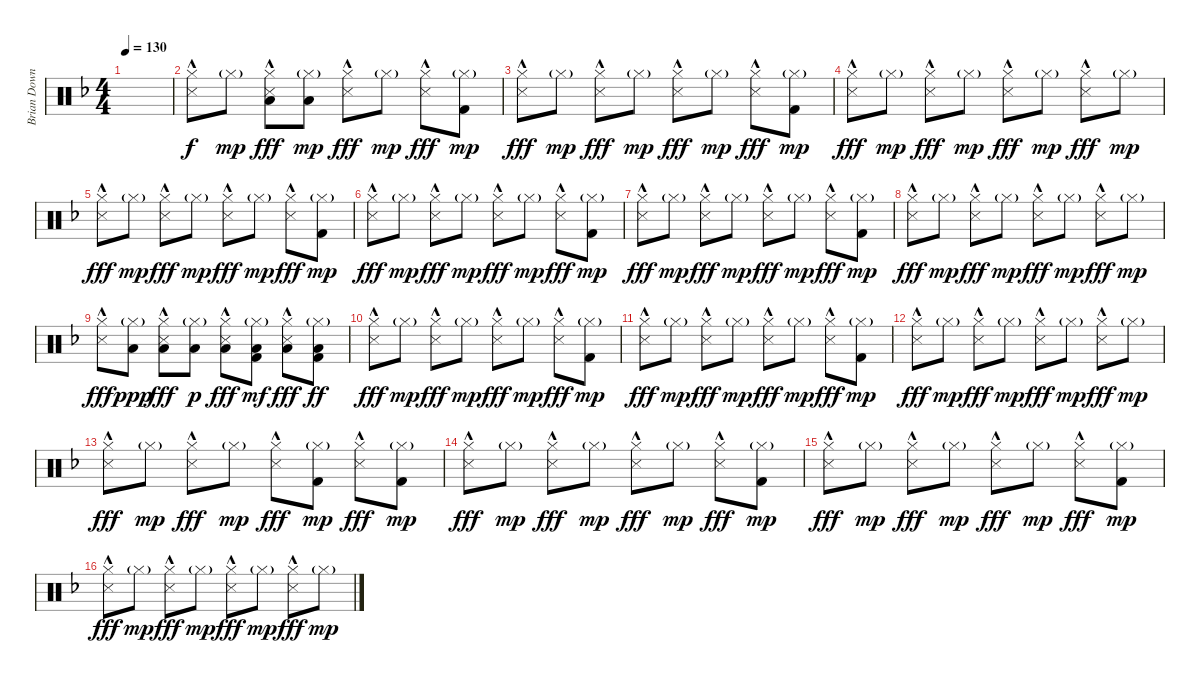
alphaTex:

\track ("Brian Downey" "Brian Down") {instrument percussion}
\staff {score}
\articulation defaults
\ts (4 4)
\tempo 130
\clef neutral
\ks dminor
|
("Hi-Hat (closed)" "Metronome (hit)"{hac}).8 "Hi-Hat (closed)"{g}.8{dy mp} ("Hi-Hat (closed)" "Low Tom (hit)" "Metronome (hit)"{hac}).8{dy fff} ("Hi-Hat (closed)"{g} "Low Tom (hit)").8{dy mp} ("Hi-Hat (closed)" "Metronome (hit)"{hac}).8{dy fff} "Hi-Hat (closed)"{g}.8{dy mp} ("Hi-Hat (closed)" "Metronome (hit)"{hac}).8{dy fff} ("Hi-Hat (closed)"{g} "Kick (hit) 2").8{dy mp} |
("Hi-Hat (closed)" "Metronome (hit)"{hac}).8{dy fff} "Hi-Hat (closed)"{g}.8{dy mp} ("Hi-Hat (closed)" "Metronome (hit)"{hac}).8{dy fff} "Hi-Hat (closed)"{g}.8{dy mp} ("Hi-Hat (closed)" "Metronome (hit)"{hac}).8{dy fff} "Hi-Hat (closed)"{g}.8{dy mp} ("Hi-Hat (closed)" "Metronome (hit)"{hac}).8{dy fff} ("Hi-Hat (closed)"{g} "Kick (hit) 2").8{dy mp} |
("Hi-Hat (closed)" "Metronome (hit)"{hac}).8{dy fff} "Hi-Hat (closed)"{g}.8{dy mp} ("Hi-Hat (closed)" "Metronome (hit)"{hac}).8{dy fff} "Hi-Hat (closed)"{g}.8{dy mp} ("Hi-Hat (closed)" "Metronome (hit)"{hac}).8{dy fff} "Hi-Hat (closed)"{g}.8{dy mp} ("Hi-Hat (closed)" "Metronome (hit)"{hac}).8{dy fff} "Hi-Hat (closed)"{g}.8{dy mp} |
("Hi-Hat (closed)" "Metronome (hit)"{hac}).8{dy fff} "Hi-Hat (closed)"{g}.8{dy mp} ("Hi-Hat (closed)" "Metronome (hit)"{hac}).8{dy fff} "Hi-Hat (closed)"{g}.8{dy mp} ("Hi-Hat (closed)" "Metronome (hit)"{hac}).8{dy fff} "Hi-Hat (closed)"{g}.8{dy mp} ("Hi-Hat (closed)" "Metronome (hit)"{hac}).8{dy fff} ("Hi-Hat (closed)"{g} "Kick (hit) 2").8{dy mp} |
("Hi-Hat (closed)" "Metronome (hit)"{hac}).8{dy fff} "Hi-Hat (closed)"{g}.8{dy mp} ("Hi-Hat (closed)" "Metronome (hit)"{hac}).8{dy fff} "Hi-Hat (closed)"{g}.8{dy mp} ("Hi-Hat (closed)" "Metronome (hit)"{hac}).8{dy fff} "Hi-Hat (closed)"{g}.8{dy mp} ("Hi-Hat (closed)" "Metronome (hit)"{hac}).8{dy fff} ("Hi-Hat (closed)"{g} "Kick (hit) 2").8{dy mp} |
("Hi-Hat (closed)" "Metronome (hit)"{hac}).8{dy fff} "Hi-Hat (closed)"{g}.8{dy mp} ("Hi-Hat (closed)" "Metronome (hit)"{hac}).8{dy fff} "Hi-Hat (closed)"{g}.8{dy mp} ("Hi-Hat (closed)" "Metronome (hit)"{hac}).8{dy fff} "Hi-Hat (closed)"{g}.8{dy mp} ("Hi-Hat (closed)" "Metronome (hit)"{hac}).8{dy fff} ("Hi-Hat (closed)"{g} "Kick (hit) 2").8{dy mp} |
("Hi-Hat (closed)" "Metronome (hit)"{hac}).8{dy fff} "Hi-Hat (closed)"{g}.8{dy mp} ("Hi-Hat (closed)" "Metronome (hit)"{hac}).8{dy fff} "Hi-Hat (closed)"{g}.8{dy mp} ("Hi-Hat (closed)" "Metronome (hit)"{hac}).8{dy fff} "Hi-Hat (closed)"{g}.8{dy mp} ("Hi-Hat (closed)" "Metronome (hit)"{hac}).8{dy fff} "Hi-Hat (closed)"{g}.8{dy mp} |
("Hi-Hat (closed)" "Metronome (hit)"{hac}).8{dy fff} ("Hi-Hat (closed)"{g} "Low Tom (hit)").8{dy ppp} ("Hi-Hat (closed)" "Low Tom (hit)" "Metronome (hit)"{hac}).8{dy fff} ("Hi-Hat (closed)"{g} "Low Tom (hit)").8{dy p} ("Hi-Hat (closed)" "Low Tom (hit)" "Metronome (hit)"{hac}).8{dy fff} ("Hi-Hat (closed)"{g} "Low Tom (hit)" "Kick (hit) 2").8{dy mf} ("Hi-Hat (closed)" "Low Tom (hit)" "Metronome (hit)"{hac}).8{dy fff} ("Hi-Hat (closed)"{g} "Low Tom (hit)" "Kick (hit) 2").8{dy ff} |
("Hi-Hat (closed)" "Metronome (hit)"{hac}).8{dy fff} "Hi-Hat (closed)"{g}.8{dy mp} ("Hi-Hat (closed)" "Metronome (hit)"{hac}).8{dy fff} "Hi-Hat (closed)"{g}.8{dy mp} ("Hi-Hat (closed)" "Metronome (hit)"{hac}).8{dy fff} "Hi-Hat (closed)"{g}.8{dy mp} ("Hi-Hat (closed)" "Metronome (hit)"{hac}).8{dy fff} ("Hi-Hat (closed)"{g} "Kick (hit) 2").8{dy mp} |
("Hi-Hat (closed)" "Metronome (hit)"{hac}).8{dy fff} "Hi-Hat (closed)"{g}.8{dy mp} ("Hi-Hat (closed)" "Metronome (hit)"{hac}).8{dy fff} "Hi-Hat (closed)"{g}.8{dy mp} ("Hi-Hat (closed)" "Metronome (hit)"{hac}).8{dy fff} "Hi-Hat (closed)"{g}.8{dy mp} ("Hi-Hat (closed)" "Metronome (hit)"{hac}).8{dy fff} ("Hi-Hat (closed)"{g} "Kick (hit) 2").8{dy mp} |
("Hi-Hat (closed)" "Metronome (hit)"{hac}).8{dy fff} "Hi-Hat (closed)"{g}.8{dy mp} ("Hi-Hat (closed)" "Metronome (hit)"{hac}).8{dy fff} "Hi-Hat (closed)"{g}.8{dy mp} ("Hi-Hat (closed)" "Metronome (hit)"{hac}).8{dy fff} "Hi-Hat (closed)"{g}.8{dy mp} ("Hi-Hat (closed)" "Metronome (hit)"{hac}).8{dy fff} "Hi-Hat (closed)"{g}.8{dy mp} |
("Hi-Hat (closed)" "Metronome (hit)"{hac}).8{dy fff} "Hi-Hat (closed)"{g}.8{dy mp} ("Hi-Hat (closed)" "Metronome (hit)"{hac}).8{dy fff} "Hi-Hat (closed)"{g}.8{dy mp} ("Hi-Hat (closed)" "Metronome (hit)"{hac}).8{dy fff} ("Hi-Hat (closed)"{g} "Kick (hit) 2").8{dy mp} ("Hi-Hat (closed)" "Metronome (hit)"{hac}).8{dy fff} ("Hi-Hat (closed)"{g} "Kick (hit) 2").8{dy mp} |
("Hi-Hat (closed)" "Metronome (hit)"{hac}).8{dy fff} "Hi-Hat (closed)"{g}.8{dy mp} ("Hi-Hat (closed)" "Metronome (hit)"{hac}).8{dy fff} "Hi-Hat (closed)"{g}.8{dy mp} ("Hi-Hat (closed)" "Metronome (hit)"{hac}).8{dy fff} "Hi-Hat (closed)"{g}.8{dy mp} ("Hi-Hat (closed)" "Metronome (hit)"{hac}).8{dy fff} ("Hi-Hat (closed)"{g} "Kick (hit) 2").8{dy mp} |
("Hi-Hat (closed)" "Metronome (hit)"{hac}).8{dy fff} "Hi-Hat (closed)"{g}.8{dy mp} ("Hi-Hat (closed)" "Metronome (hit)"{hac}).8{dy fff} "Hi-Hat (closed)"{g}.8{dy mp} ("Hi-Hat (closed)" "Metronome (hit)"{hac}).8{dy fff} "Hi-Hat (closed)"{g}.8{dy mp} ("Hi-Hat (closed)" "Metronome (hit)"{hac}).8{dy fff} ("Hi-Hat (closed)"{g} "Kick (hit) 2").8{dy mp} |
("Hi-Hat (closed)" "Metronome (hit)"{hac}).8{dy fff} "Hi-Hat (closed)"{g}.8{dy mp} ("Hi-Hat (closed)" "Metronome (hit)"{hac}).8{dy fff} "Hi-Hat (closed)"{g}.8{dy mp} ("Hi-Hat (closed)" "Metronome (hit)"{hac}).8{dy fff} "Hi-Hat (closed)"{g}.8{dy mp} ("Hi-Hat (closed)" "Metronome (hit)"{hac}).8{dy fff} "Hi-Hat (closed)"{g}.8{dy mp}
